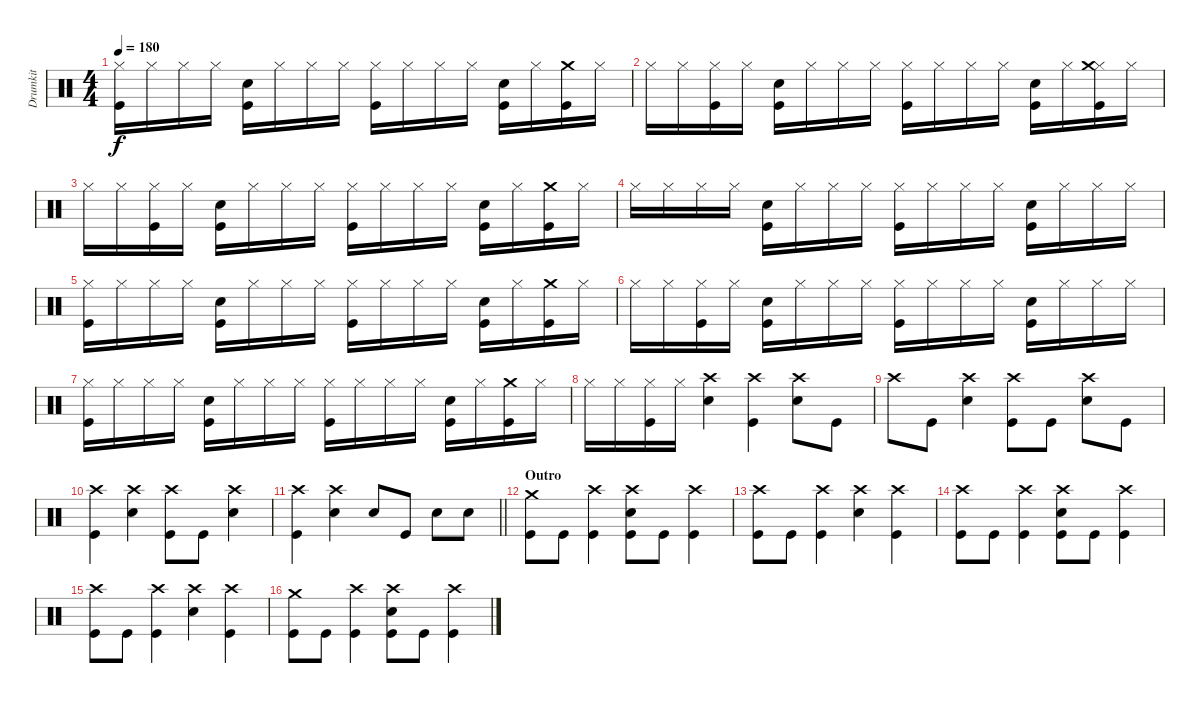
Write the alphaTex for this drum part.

\track ("Drumkit" "Drumkit") {instrument percussion}
\staff {score}
\articulation defaults
\ts (4 4)
\tempo 180
\clef neutral
\ks c
("Hi-Hat (closed)" "Kick (hit)").16{dy f} "Hi-Hat (closed)".16 "Hi-Hat (closed)".16 "Hi-Hat (closed)".16 ("Snare (hit) 2" "Kick (hit)").16 "Hi-Hat (closed)".16 "Hi-Hat (closed)".16 "Hi-Hat (closed)".16 ("Hi-Hat (closed)" "Kick (hit)").16 "Hi-Hat (closed)".16 "Hi-Hat (closed)".16 "Hi-Hat (closed)".16 ("Snare (hit) 2" "Kick (hit)").16 "Hi-Hat (closed)".16 ("Crash medium (hit)" "Kick (hit)").16 "Hi-Hat (closed)".16 |
"Hi-Hat (closed)".16 "Hi-Hat (closed)".16 ("Hi-Hat (closed)" "Kick (hit)").16 "Hi-Hat (closed)".16 ("Snare (hit) 2" "Kick (hit)").16 "Hi-Hat (closed)".16 "Hi-Hat (closed)".16 "Hi-Hat (closed)".16 ("Hi-Hat (closed)" "Kick (hit)").16 "Hi-Hat (closed)".16 "Hi-Hat (closed)".16 "Hi-Hat (closed)".16 ("Snare (hit) 2" "Kick (hit)").16 "Hi-Hat (closed)".16 ("Kick (hit)" "Hi-Hat (closed)" "Crash medium (hit)").16 "Hi-Hat (closed)".16 |
"Hi-Hat (closed)".16 "Hi-Hat (closed)".16 ("Hi-Hat (closed)" "Kick (hit)").16 "Hi-Hat (closed)".16 ("Snare (hit) 2" "Kick (hit)").16 "Hi-Hat (closed)".16 "Hi-Hat (closed)".16 "Hi-Hat (closed)".16 ("Hi-Hat (closed)" "Kick (hit)").16 "Hi-Hat (closed)".16 "Hi-Hat (closed)".16 "Hi-Hat (closed)".16 ("Snare (hit) 2" "Kick (hit)").16 "Hi-Hat (closed)".16 ("Crash medium (hit)" "Kick (hit)").16 "Hi-Hat (closed)".16 |
"Hi-Hat (closed)".16 "Hi-Hat (closed)".16 "Hi-Hat (closed)".16 "Hi-Hat (closed)".16 ("Snare (hit) 2" "Kick (hit)").16 "Hi-Hat (closed)".16 "Hi-Hat (closed)".16 "Hi-Hat (closed)".16 ("Hi-Hat (closed)" "Kick (hit)").16 "Hi-Hat (closed)".16 "Hi-Hat (closed)".16 "Hi-Hat (closed)".16 ("Snare (hit) 2" "Kick (hit)").16 "Hi-Hat (closed)".16 "Hi-Hat (closed)".16 "Hi-Hat (closed)".16 |
("Hi-Hat (closed)" "Kick (hit)").16 "Hi-Hat (closed)".16 "Hi-Hat (closed)".16 "Hi-Hat (closed)".16 ("Snare (hit) 2" "Kick (hit)").16 "Hi-Hat (closed)".16 "Hi-Hat (closed)".16 "Hi-Hat (closed)".16 ("Hi-Hat (closed)" "Kick (hit)").16 "Hi-Hat (closed)".16 "Hi-Hat (closed)".16 "Hi-Hat (closed)".16 ("Snare (hit) 2" "Kick (hit)").16 "Hi-Hat (closed)".16 ("Crash medium (hit)" "Kick (hit)").16 "Hi-Hat (closed)".16 |
"Hi-Hat (closed)".16 "Hi-Hat (closed)".16 ("Hi-Hat (closed)" "Kick (hit)").16 "Hi-Hat (closed)".16 ("Snare (hit) 2" "Kick (hit)").16 "Hi-Hat (closed)".16 "Hi-Hat (closed)".16 "Hi-Hat (closed)".16 ("Hi-Hat (closed)" "Kick (hit)").16 "Hi-Hat (closed)".16 "Hi-Hat (closed)".16 "Hi-Hat (closed)".16 ("Snare (hit) 2" "Kick (hit)").16 "Hi-Hat (closed)".16 "Hi-Hat (closed)".16 "Hi-Hat (closed)".16 |
("Hi-Hat (closed)" "Kick (hit)").16 "Hi-Hat (closed)".16 "Hi-Hat (closed)".16 "Hi-Hat (closed)".16 ("Snare (hit) 2" "Kick (hit)").16 "Hi-Hat (closed)".16 "Hi-Hat (closed)".16 "Hi-Hat (closed)".16 ("Hi-Hat (closed)" "Kick (hit)").16 "Hi-Hat (closed)".16 "Hi-Hat (closed)".16 "Hi-Hat (closed)".16 ("Snare (hit) 2" "Kick (hit)").16 "Hi-Hat (closed)".16 ("Crash medium (hit)" "Kick (hit)").16 "Hi-Hat (closed)".16 |
"Hi-Hat (closed)".16 "Hi-Hat (closed)".16 ("Hi-Hat (closed)" "Kick (hit)").16 "Hi-Hat (closed)".16 ("Crash high (hit)" "Snare (hit) 2").4 ("Crash high (hit)" "Kick (hit)").4 ("Crash high (hit)" "Snare (hit) 2").8 "Kick (hit)".8 |
"Crash high (hit)".8 "Kick (hit)".8 ("Crash high (hit)" "Snare (hit) 2").4 ("Crash high (hit)" "Kick (hit)").8 "Kick (hit)".8 ("Snare (hit) 2" "Crash high (hit)").8 "Kick (hit)".8 |
("Crash high (hit)" "Kick (hit)").4 ("Crash high (hit)" "Snare (hit) 2").4 ("Crash high (hit)" "Kick (hit)").8 "Kick (hit)".8 ("Crash high (hit)" "Snare (hit) 2").4 |
\barLineRight lightlight
("Crash high (hit)" "Kick (hit)").4 ("Crash high (hit)" "Snare (hit) 2").4 "Snare (hit) 2".8 "Kick (hit)".8 "Snare (hit) 2".8 "Snare (hit) 2".8 |
\section ("" "Outro")
("Crash medium (hit)" "Kick (hit)").8 "Kick (hit)".8 ("Crash high (hit)" "Kick (hit)").4 ("Crash high (hit)" "Snare (hit) 2" "Kick (hit)").8 "Kick (hit)".8 ("Crash high (hit)" "Kick (hit)").4 |
("Crash high (hit)" "Kick (hit)").8 "Kick (hit)".8 ("Crash high (hit)" "Kick (hit)").4 ("Crash high (hit)" "Snare (hit) 2").4 ("Crash high (hit)" "Kick (hit)").4 |
("Crash high (hit)" "Kick (hit)").8 "Kick (hit)".8 ("Crash high (hit)" "Kick (hit)").4 ("Crash high (hit)" "Snare (hit) 2" "Kick (hit)").8 "Kick (hit)".8 ("Crash high (hit)" "Kick (hit)").4 |
("Crash high (hit)" "Kick (hit)").8 "Kick (hit)".8 ("Crash high (hit)" "Kick (hit)").4 ("Crash high (hit)" "Snare (hit) 2").4 ("Crash high (hit)" "Kick (hit)").4 |
("Crash medium (hit)" "Kick (hit)").8 "Kick (hit)".8 ("Crash high (hit)" "Kick (hit)").4 ("Crash high (hit)" "Snare (hit) 2" "Kick (hit)").8 "Kick (hit)".8 ("Crash high (hit)" "Kick (hit)").4
